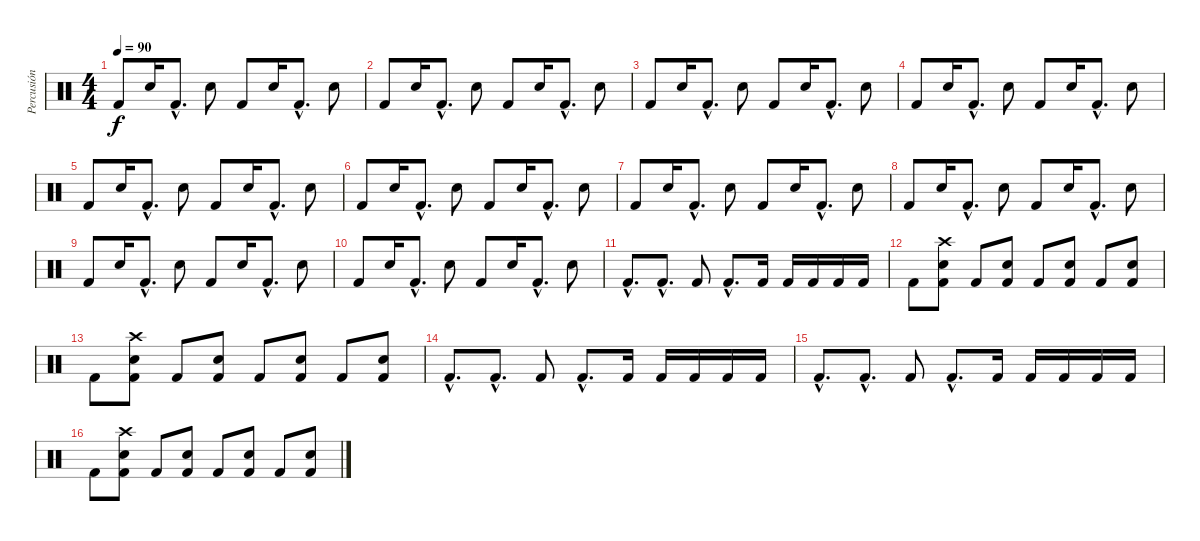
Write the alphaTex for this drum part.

\track ("Percusión" "Percusión") {instrument percussion}
\staff {score}
\articulation defaults
\ts (4 4)
\tempo 90
\clef neutral
\ks c "Kick (hit) 2".8{dy f} "Electric Snare (hit)".16 "Kick (hit) 2"{hac}.8{d} "Electric Snare (hit)".8 "Kick (hit) 2".8 "Electric Snare (hit)".16 "Kick (hit) 2"{hac}.8{d} "Electric Snare (hit)".8
|
"Kick (hit) 2".8 "Electric Snare (hit)".16 "Kick (hit) 2"{hac}.8{d} "Electric Snare (hit)".8 "Kick (hit) 2".8 "Electric Snare (hit)".16 "Kick (hit) 2"{hac}.8{d} "Electric Snare (hit)".8 |
"Kick (hit) 2".8 "Electric Snare (hit)".16 "Kick (hit) 2"{hac}.8{d} "Electric Snare (hit)".8 "Kick (hit) 2".8 "Electric Snare (hit)".16 "Kick (hit) 2"{hac}.8{d} "Electric Snare (hit)".8 |
"Kick (hit) 2".8 "Electric Snare (hit)".16 "Kick (hit) 2"{hac}.8{d} "Electric Snare (hit)".8 "Kick (hit) 2".8 "Electric Snare (hit)".16 "Kick (hit) 2"{hac}.8{d} "Electric Snare (hit)".8 |
"Kick (hit) 2".8 "Electric Snare (hit)".16 "Kick (hit) 2"{hac}.8{d} "Electric Snare (hit)".8 "Kick (hit) 2".8 "Electric Snare (hit)".16 "Kick (hit) 2"{hac}.8{d} "Electric Snare (hit)".8 |
"Kick (hit) 2".8 "Electric Snare (hit)".16 "Kick (hit) 2"{hac}.8{d} "Electric Snare (hit)".8 "Kick (hit) 2".8 "Electric Snare (hit)".16 "Kick (hit) 2"{hac}.8{d} "Electric Snare (hit)".8 |
"Kick (hit) 2".8 "Electric Snare (hit)".16 "Kick (hit) 2"{hac}.8{d} "Electric Snare (hit)".8 "Kick (hit) 2".8 "Electric Snare (hit)".16 "Kick (hit) 2"{hac}.8{d} "Electric Snare (hit)".8 |
"Kick (hit) 2".8 "Electric Snare (hit)".16 "Kick (hit) 2"{hac}.8{d} "Electric Snare (hit)".8 "Kick (hit) 2".8 "Electric Snare (hit)".16 "Kick (hit) 2"{hac}.8{d} "Electric Snare (hit)".8 |
"Kick (hit) 2".8 "Electric Snare (hit)".16 "Kick (hit) 2"{hac}.8{d} "Electric Snare (hit)".8 "Kick (hit) 2".8 "Electric Snare (hit)".16 "Kick (hit) 2"{hac}.8{d} "Electric Snare (hit)".8 |
"Kick (hit) 2".8 "Electric Snare (hit)".16 "Kick (hit) 2"{hac}.8{d} "Electric Snare (hit)".8 "Kick (hit) 2".8 "Electric Snare (hit)".16 "Kick (hit) 2"{hac}.8{d} "Electric Snare (hit)".8 |
"Kick (hit) 2"{hac}.8{d} "Kick (hit) 2"{hac}.8{d} "Kick (hit) 2".8 "Kick (hit) 2"{hac}.8{d} "Kick (hit) 2".16 "Kick (hit) 2".16 "Kick (hit) 2".16 "Kick (hit) 2".16 "Kick (hit) 2".16 |
"Kick (hit) 2".8 ("Electric Snare (hit)" "Kick (hit) 2" "Crash high (hit)").8 "Kick (hit) 2".8 ("Electric Snare (hit)" "Kick (hit) 2").8 "Kick (hit) 2".8 ("Electric Snare (hit)" "Kick (hit) 2").8 "Kick (hit) 2".8 ("Electric Snare (hit)" "Kick (hit) 2").8 |
"Kick (hit) 2".8 ("Electric Snare (hit)" "Kick (hit) 2" "Crash high (hit)").8 "Kick (hit) 2".8 ("Electric Snare (hit)" "Kick (hit) 2").8 "Kick (hit) 2".8 ("Electric Snare (hit)" "Kick (hit) 2").8 "Kick (hit) 2".8 ("Electric Snare (hit)" "Kick (hit) 2").8 |
"Kick (hit) 2"{hac}.8{d} "Kick (hit) 2"{hac}.8{d} "Kick (hit) 2".8 "Kick (hit) 2"{hac}.8{d} "Kick (hit) 2".16 "Kick (hit) 2".16 "Kick (hit) 2".16 "Kick (hit) 2".16 "Kick (hit) 2".16 |
"Kick (hit) 2"{hac}.8{d} "Kick (hit) 2"{hac}.8{d} "Kick (hit) 2".8 "Kick (hit) 2"{hac}.8{d} "Kick (hit) 2".16 "Kick (hit) 2".16 "Kick (hit) 2".16 "Kick (hit) 2".16 "Kick (hit) 2".16 |
"Kick (hit) 2".8 ("Electric Snare (hit)" "Kick (hit) 2" "Crash high (hit)").8 "Kick (hit) 2".8 ("Electric Snare (hit)" "Kick (hit) 2").8 "Kick (hit) 2".8 ("Electric Snare (hit)" "Kick (hit) 2").8 "Kick (hit) 2".8 ("Electric Snare (hit)" "Kick (hit) 2").8
